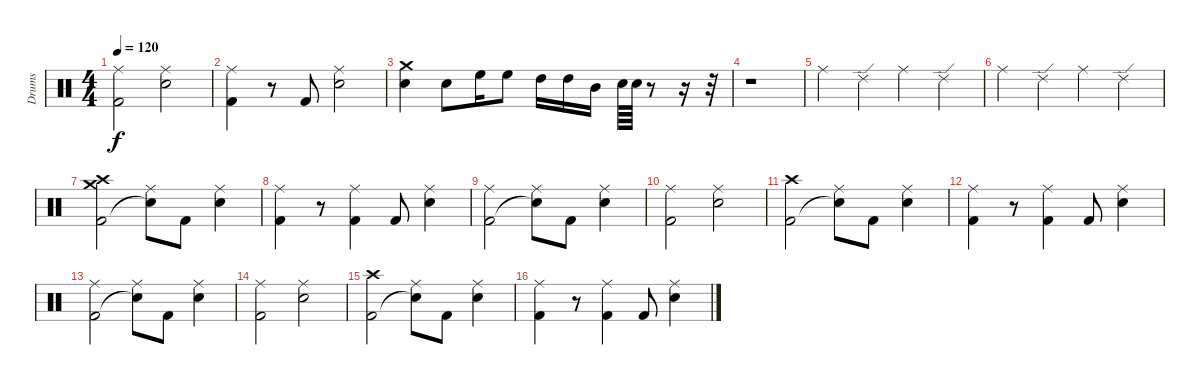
\track ("Drums" "Drums") {instrument percussion}
\staff {score}
\articulation defaults
\ts (4 4)
\tempo 120
\clef neutral
\ks c
("Kick (hit) 2" "Ride (middle)").2{dy f} ("Electric Snare (hit)" "Ride (middle)").2 |
("Kick (hit) 2" "Ride (middle)").4 r.8 "Kick (hit) 2".8 ("Electric Snare (hit)" "Ride (middle)").2 |
("Electric Snare (hit)" "Crash medium (hit)").4 "Electric Snare (hit)".8 "High Floor Tom (hit)".16 "High Floor Tom (hit)".8 "High Tom (hit)".16 "High Tom (hit)".16 "Mid Tom (hit)".16 "Electric Snare (hit)".64 "Electric Snare (hit)".64 r.8 r.16 r.32 |
r.1 |
"Ride (middle)".4 "Ride (edge) 2".4 "Ride (middle)".4 "Ride (edge) 2".4 |
"Ride (middle)".4 "Ride (edge) 2".4 "Ride (middle)".4 "Ride (edge) 2".4 |
("Kick (hit) 2" "Crash high (hit)" "Crash medium (hit)").2 ("Snare (hit)"{t} "Ride (middle)").8 "Kick (hit) 2".8 ("Electric Snare (hit)" "Ride (middle)").4 |
("Kick (hit) 2" "Ride (middle)").4 r.8 ("Kick (hit) 2" "Ride (middle)").4 "Kick (hit) 2".8 ("Electric Snare (hit)" "Ride (middle)").4 |
("Kick (hit) 2" "Ride (middle)").2 ("Snare (hit)"{t} "Ride (middle)").8 "Kick (hit) 2".8 ("Electric Snare (hit)" "Ride (middle)").4 |
("Kick (hit) 2" "Ride (middle)").2 ("Electric Snare (hit)" "Ride (middle)").2 |
("Kick (hit) 2" "Crash high (hit)").2 ("Snare (hit)"{t} "Ride (middle)").8 "Kick (hit) 2".8 ("Electric Snare (hit)" "Ride (middle)").4 |
("Kick (hit) 2" "Ride (middle)").4 r.8 ("Kick (hit) 2" "Ride (middle)").4 "Kick (hit) 2".8 ("Electric Snare (hit)" "Ride (middle)").4 |
("Kick (hit) 2" "Ride (middle)").2 ("Snare (hit)"{t} "Ride (middle)").8 "Kick (hit) 2".8 ("Electric Snare (hit)" "Ride (middle)").4 |
("Kick (hit) 2" "Ride (middle)").2 ("Electric Snare (hit)" "Ride (middle)").2 |
("Kick (hit) 2" "Crash high (hit)").2 ("Snare (hit)"{t} "Ride (middle)").8 "Kick (hit) 2".8 ("Electric Snare (hit)" "Ride (middle)").4 |
("Kick (hit) 2" "Ride (middle)").4 r.8 ("Kick (hit) 2" "Ride (middle)").4 "Kick (hit) 2".8 ("Electric Snare (hit)" "Ride (middle)").4
